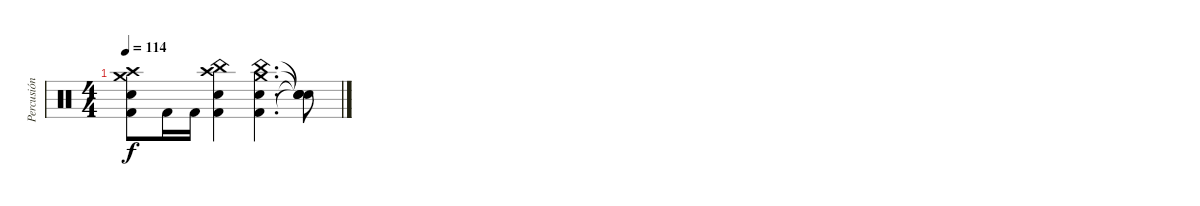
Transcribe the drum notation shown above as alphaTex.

\track ("Percusión" "Percusión") {instrument percussion}
\staff {score}
\articulation defaults
\ts (4 4)
\tempo 114
\clef neutral
\ks c
("Crash high (hit)" "Crash medium (hit)" "Snare (hit) 2" "Kick (hit) 2").8{dy f} "Kick (hit) 2".16 "Kick (hit) 2".16 ("China (hit)" "Crash high (hit)" "Snare (hit) 2" "Kick (hit) 2").4 ("China (hit)" "Crash medium (hit)" "Snare (hit) 2" "Kick (hit) 2").4{d} ("Snare (hit)"{t} "Snare (hit)"{t} "Snare (hit)"{t} "Snare (hit)"{t}).8
